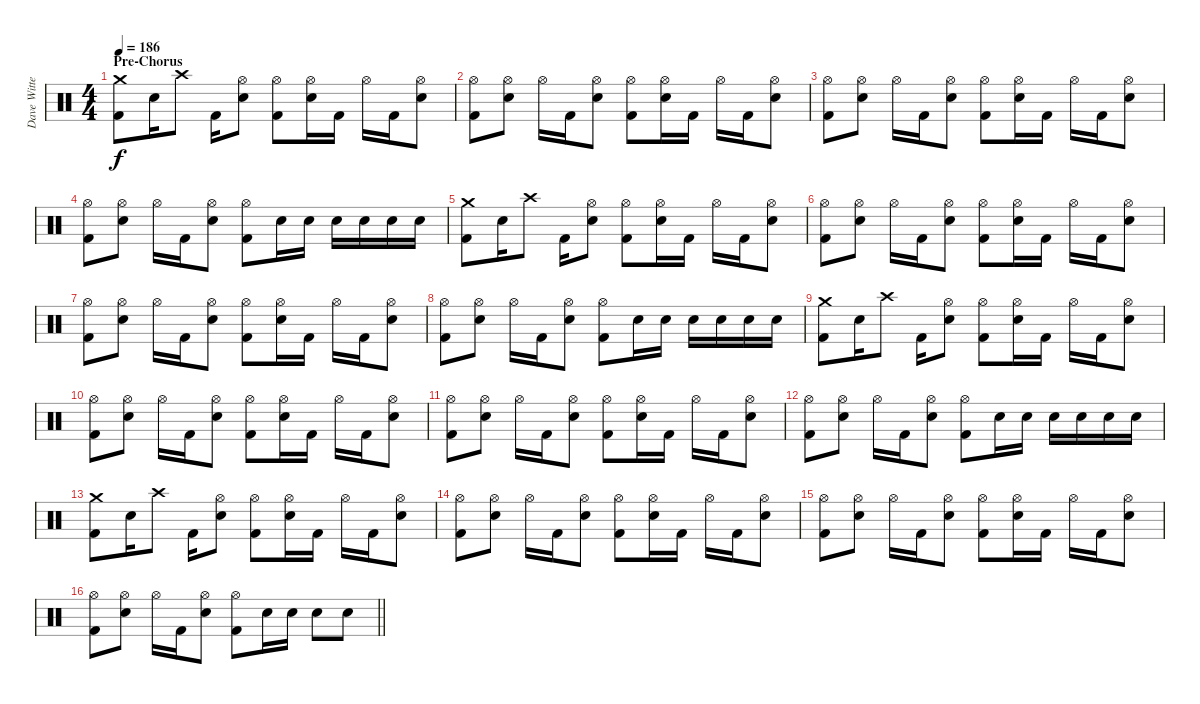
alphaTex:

\track ("Dave Witte" "Dave Witte") {instrument percussion}
\staff {score}
\articulation defaults
\ts (4 4)
\section ("" "Pre-Chorus")
\tempo 186
\clef neutral
\ks c
("Crash medium (hit)" "Kick (hit) 2").8{dy f} "Electric Snare (hit)".16 "Crash high (hit)".8 "Kick (hit) 2".16 ("Hi-Hat (open)" "Electric Snare (hit)").8 ("Hi-Hat (open)" "Kick (hit) 2").8 ("Hi-Hat (open)" "Electric Snare (hit)").16 "Kick (hit) 2".16 "Hi-Hat (open)".16 "Kick (hit) 2".16 ("Hi-Hat (open)" "Electric Snare (hit)").8 |
("Hi-Hat (open)" "Kick (hit) 2").8 ("Hi-Hat (open)" "Electric Snare (hit)").8 "Hi-Hat (open)".16 "Kick (hit) 2".16 ("Hi-Hat (open)" "Electric Snare (hit)").8 ("Hi-Hat (open)" "Kick (hit) 2").8 ("Hi-Hat (open)" "Electric Snare (hit)").16 "Kick (hit) 2".16 "Hi-Hat (open)".16 "Kick (hit) 2".16 ("Hi-Hat (open)" "Electric Snare (hit)").8 |
("Hi-Hat (open)" "Kick (hit) 2").8 ("Hi-Hat (open)" "Electric Snare (hit)").8 "Hi-Hat (open)".16 "Kick (hit) 2".16 ("Hi-Hat (open)" "Electric Snare (hit)").8 ("Hi-Hat (open)" "Kick (hit) 2").8 ("Hi-Hat (open)" "Electric Snare (hit)").16 "Kick (hit) 2".16 "Hi-Hat (open)".16 "Kick (hit) 2".16 ("Hi-Hat (open)" "Electric Snare (hit)").8 |
("Hi-Hat (open)" "Kick (hit) 2").8 ("Hi-Hat (open)" "Electric Snare (hit)").8 "Hi-Hat (open)".16 "Kick (hit) 2".16 ("Hi-Hat (open)" "Electric Snare (hit)").8 ("Hi-Hat (open)" "Kick (hit) 2").8 "Electric Snare (hit)".16 "Electric Snare (hit)".16 "Electric Snare (hit)".16 "Electric Snare (hit)".16 "Electric Snare (hit)".16 "Electric Snare (hit)".16 |
("Crash medium (hit)" "Kick (hit) 2").8 "Electric Snare (hit)".16 "Crash high (hit)".8 "Kick (hit) 2".16 ("Hi-Hat (open)" "Electric Snare (hit)").8 ("Hi-Hat (open)" "Kick (hit) 2").8 ("Hi-Hat (open)" "Electric Snare (hit)").16 "Kick (hit) 2".16 "Hi-Hat (open)".16 "Kick (hit) 2".16 ("Hi-Hat (open)" "Electric Snare (hit)").8 |
("Hi-Hat (open)" "Kick (hit) 2").8 ("Hi-Hat (open)" "Electric Snare (hit)").8 "Hi-Hat (open)".16 "Kick (hit) 2".16 ("Hi-Hat (open)" "Electric Snare (hit)").8 ("Hi-Hat (open)" "Kick (hit) 2").8 ("Hi-Hat (open)" "Electric Snare (hit)").16 "Kick (hit) 2".16 "Hi-Hat (open)".16 "Kick (hit) 2".16 ("Hi-Hat (open)" "Electric Snare (hit)").8 |
("Hi-Hat (open)" "Kick (hit) 2").8 ("Hi-Hat (open)" "Electric Snare (hit)").8 "Hi-Hat (open)".16 "Kick (hit) 2".16 ("Hi-Hat (open)" "Electric Snare (hit)").8 ("Hi-Hat (open)" "Kick (hit) 2").8 ("Hi-Hat (open)" "Electric Snare (hit)").16 "Kick (hit) 2".16 "Hi-Hat (open)".16 "Kick (hit) 2".16 ("Hi-Hat (open)" "Electric Snare (hit)").8 |
("Hi-Hat (open)" "Kick (hit) 2").8 ("Hi-Hat (open)" "Electric Snare (hit)").8 "Hi-Hat (open)".16 "Kick (hit) 2".16 ("Hi-Hat (open)" "Electric Snare (hit)").8 ("Hi-Hat (open)" "Kick (hit) 2").8 "Electric Snare (hit)".16 "Electric Snare (hit)".16 "Electric Snare (hit)".16 "Electric Snare (hit)".16 "Electric Snare (hit)".16 "Electric Snare (hit)".16 |
("Crash medium (hit)" "Kick (hit) 2").8 "Electric Snare (hit)".16 "Crash high (hit)".8 "Kick (hit) 2".16 ("Hi-Hat (open)" "Electric Snare (hit)").8 ("Hi-Hat (open)" "Kick (hit) 2").8 ("Hi-Hat (open)" "Electric Snare (hit)").16 "Kick (hit) 2".16 "Hi-Hat (open)".16 "Kick (hit) 2".16 ("Hi-Hat (open)" "Electric Snare (hit)").8 |
("Hi-Hat (open)" "Kick (hit) 2").8 ("Hi-Hat (open)" "Electric Snare (hit)").8 "Hi-Hat (open)".16 "Kick (hit) 2".16 ("Hi-Hat (open)" "Electric Snare (hit)").8 ("Hi-Hat (open)" "Kick (hit) 2").8 ("Hi-Hat (open)" "Electric Snare (hit)").16 "Kick (hit) 2".16 "Hi-Hat (open)".16 "Kick (hit) 2".16 ("Hi-Hat (open)" "Electric Snare (hit)").8 |
("Hi-Hat (open)" "Kick (hit) 2").8 ("Hi-Hat (open)" "Electric Snare (hit)").8 "Hi-Hat (open)".16 "Kick (hit) 2".16 ("Hi-Hat (open)" "Electric Snare (hit)").8 ("Hi-Hat (open)" "Kick (hit) 2").8 ("Hi-Hat (open)" "Electric Snare (hit)").16 "Kick (hit) 2".16 "Hi-Hat (open)".16 "Kick (hit) 2".16 ("Hi-Hat (open)" "Electric Snare (hit)").8 |
("Hi-Hat (open)" "Kick (hit) 2").8 ("Hi-Hat (open)" "Electric Snare (hit)").8 "Hi-Hat (open)".16 "Kick (hit) 2".16 ("Hi-Hat (open)" "Electric Snare (hit)").8 ("Hi-Hat (open)" "Kick (hit) 2").8 "Electric Snare (hit)".16 "Electric Snare (hit)".16 "Electric Snare (hit)".16 "Electric Snare (hit)".16 "Electric Snare (hit)".16 "Electric Snare (hit)".16 |
("Crash medium (hit)" "Kick (hit) 2").8 "Electric Snare (hit)".16 "Crash high (hit)".8 "Kick (hit) 2".16 ("Hi-Hat (open)" "Electric Snare (hit)").8 ("Hi-Hat (open)" "Kick (hit) 2").8 ("Hi-Hat (open)" "Electric Snare (hit)").16 "Kick (hit) 2".16 "Hi-Hat (open)".16 "Kick (hit) 2".16 ("Hi-Hat (open)" "Electric Snare (hit)").8 |
("Hi-Hat (open)" "Kick (hit) 2").8 ("Hi-Hat (open)" "Electric Snare (hit)").8 "Hi-Hat (open)".16 "Kick (hit) 2".16 ("Hi-Hat (open)" "Electric Snare (hit)").8 ("Hi-Hat (open)" "Kick (hit) 2").8 ("Hi-Hat (open)" "Electric Snare (hit)").16 "Kick (hit) 2".16 "Hi-Hat (open)".16 "Kick (hit) 2".16 ("Hi-Hat (open)" "Electric Snare (hit)").8 |
("Hi-Hat (open)" "Kick (hit) 2").8 ("Hi-Hat (open)" "Electric Snare (hit)").8 "Hi-Hat (open)".16 "Kick (hit) 2".16 ("Hi-Hat (open)" "Electric Snare (hit)").8 ("Hi-Hat (open)" "Kick (hit) 2").8 ("Hi-Hat (open)" "Electric Snare (hit)").16 "Kick (hit) 2".16 "Hi-Hat (open)".16 "Kick (hit) 2".16 ("Hi-Hat (open)" "Electric Snare (hit)").8 |
\barLineRight lightlight
("Hi-Hat (open)" "Kick (hit) 2").8 ("Hi-Hat (open)" "Electric Snare (hit)").8 "Hi-Hat (open)".16 "Kick (hit) 2".16 ("Hi-Hat (open)" "Electric Snare (hit)").8 ("Hi-Hat (open)" "Kick (hit) 2").8 "Electric Snare (hit)".16 "Electric Snare (hit)".16 "Electric Snare (hit)".8 "Electric Snare (hit)".8
